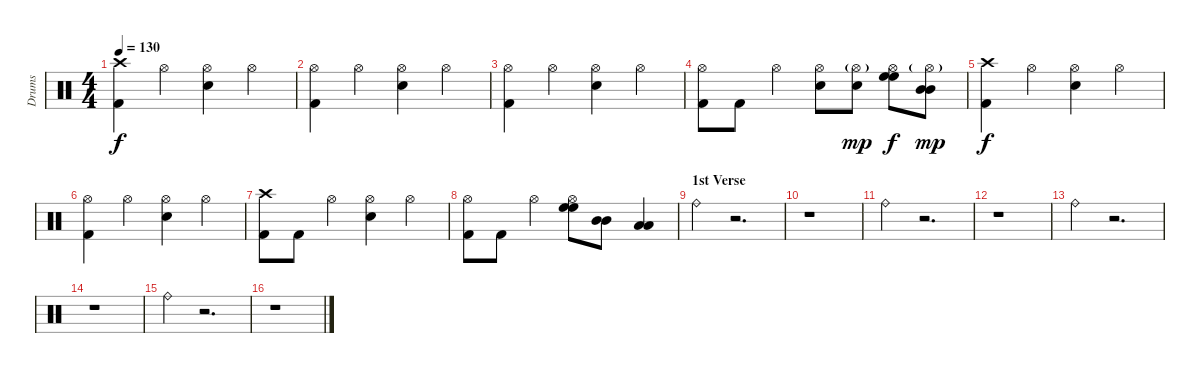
\track ("Drums" "Drums") {instrument percussion}
\staff {score}
\articulation defaults
\ts (4 4)
\tempo 130
\clef neutral
\ks c
("Crash high (hit)" "Kick (hit) 2").4{dy f} "Hi-Hat (open)".4 ("Hi-Hat (open)" "Snare (hit) 2").4 "Hi-Hat (open)".4 |
("Hi-Hat (open)" "Kick (hit) 2").4 "Hi-Hat (open)".4 ("Hi-Hat (open)" "Snare (hit) 2").4 "Hi-Hat (open)".4 |
("Hi-Hat (open)" "Kick (hit) 2").4 "Hi-Hat (open)".4 ("Hi-Hat (open)" "Snare (hit) 2").4 "Hi-Hat (open)".4 |
("Hi-Hat (open)" "Kick (hit) 2").8 "Kick (hit) 2".8 "Hi-Hat (open)".4 ("Hi-Hat (open)" "Snare (hit) 2").8 ("Hi-Hat (open)"{g} "Snare (hit) 2").8{dy mp} ("Hi-Hat (open)" "High Floor Tom (hit)" "High Floor Tom (hit)").8{dy f} ("Hi-Hat (open)"{g} "Mid Tom (hit)" "Mid Tom (hit)").8{dy mp} |
("Crash high (hit)" "Kick (hit) 2").4{dy f} "Hi-Hat (open)".4 ("Hi-Hat (open)" "Snare (hit) 2").4 "Hi-Hat (open)".4 |
("Hi-Hat (open)" "Kick (hit) 2").4 "Hi-Hat (open)".4 ("Hi-Hat (open)" "Snare (hit) 2").4 "Hi-Hat (open)".4 |
("Crash high (hit)" "Kick (hit) 2").8 "Kick (hit) 2".8 "Hi-Hat (open)".4 ("Hi-Hat (open)" "Snare (hit) 2").4 "Hi-Hat (open)".4 |
("Hi-Hat (open)" "Kick (hit) 2").8 "Kick (hit) 2".8 "Hi-Hat (open)".4 ("Hi-Hat (open)" "High Floor Tom (hit)" "High Floor Tom (hit)").8 ("Mid Tom (hit)" "Mid Tom (hit)").8 ("Low Tom (hit)" "Low Tom (hit)").4 |
\section ("" "1st Verse")
"Ride (bell)".4 r.2{d} |
r.1 |
"Ride (bell)".4 r.2{d} |
r.1 |
"Ride (bell)".4 r.2{d} |
r.1 |
"Ride (bell)".4 r.2{d} |
r.1
